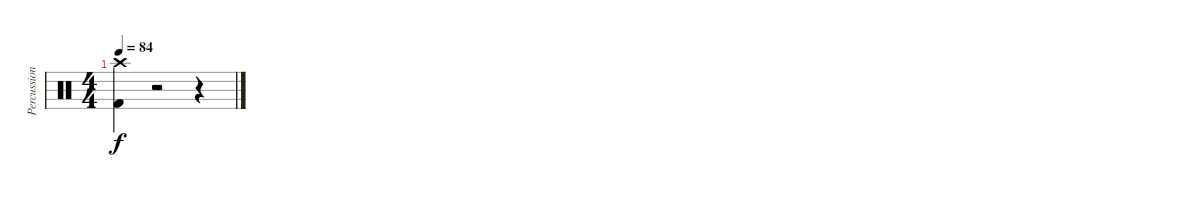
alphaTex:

\track ("Percussion" "Percussion") {instrument percussion}
\staff {score}
\articulation defaults
\ts (4 4)
\tempo 84
\clef neutral
\ks c
("Crash high (hit)" "Kick (hit) 2").4{dy f} r.2 r.4
